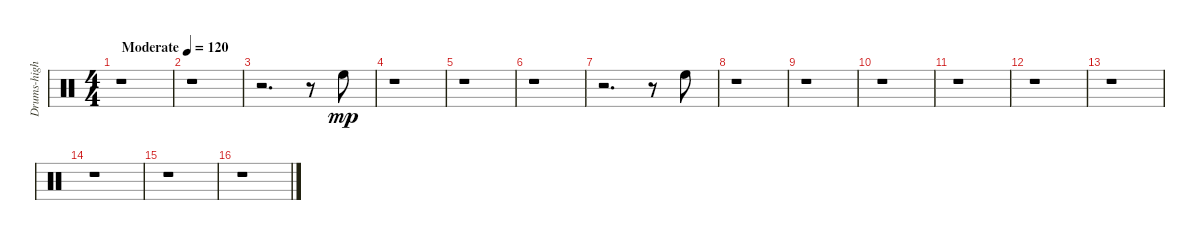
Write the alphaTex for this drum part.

\track ("Drums-high tom 1" "Drums-high") {instrument percussion}
\staff {score}
\articulation defaults
\ts (4 4)
\tempo (120 "Moderate")
\clef neutral
\ks c
r.1{dy mp} |
r.1 |
r.2{d} r.8 "High Floor Tom (hit)".8 |
r.1 |
r.1 |
r.1 |
r.2{d} r.8 "High Floor Tom (hit)".8 |
r.1 |
r.1 |
r.1 |
r.1 |
r.1 |
r.1 |
r.1 |
r.1 |
r.1
